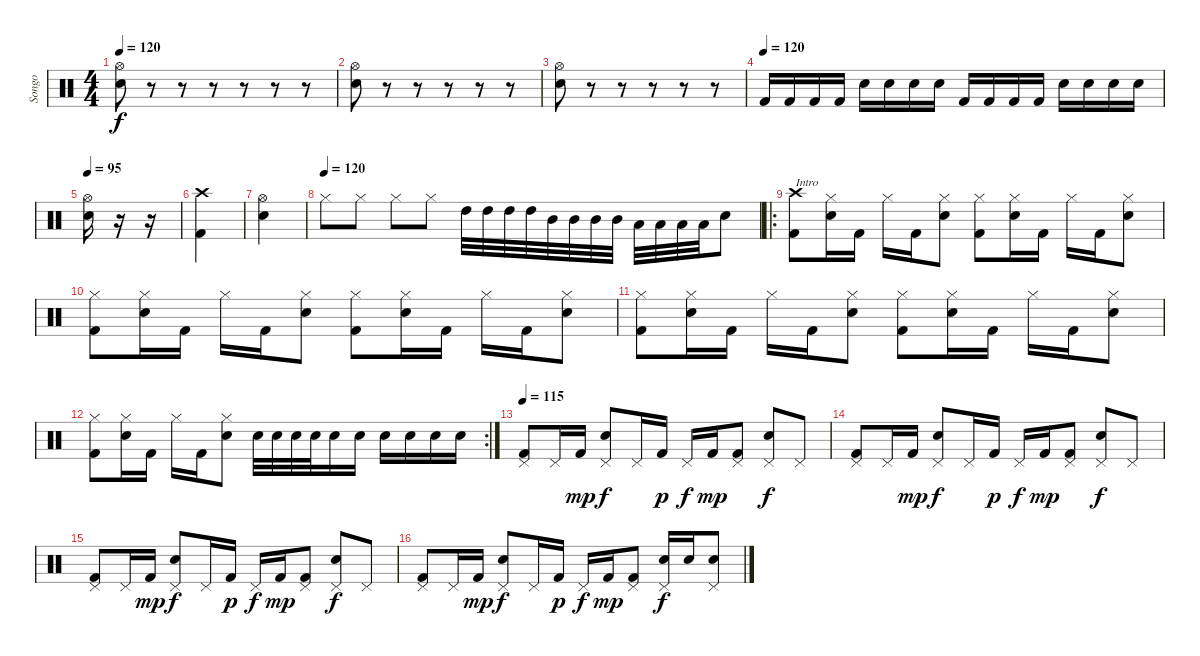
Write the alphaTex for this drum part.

\track ("Songo" "Songo") {instrument percussion}
\staff {score}
\articulation defaults
\ts (4 4)
\tempo 120
\tempo 95
\tempo 120
\clef neutral
\ks c
("Hi-Hat (open)" "Snare (hit) 2").8{dy f} r.8 r.8 r.8 r.8 r.8 r.8 |
("Hi-Hat (open)" "Snare (hit) 2").8 r.8 r.8 r.8 r.8 r.8 |
("Hi-Hat (open)" "Snare (hit) 2").8 r.8 r.8 r.8 r.8 r.8 |
\tempo (120)
"Kick (hit) 2".16 "Kick (hit) 2".16 "Kick (hit) 2".16 "Kick (hit) 2".16 "Snare (hit)"{x}.16 "Snare (hit)"{x}.16 "Snare (hit)"{x}.16 "Snare (hit)"{x}.16 "Kick (hit) 2".16 "Kick (hit) 2".16 "Kick (hit) 2".16 "Kick (hit) 2".16 "Snare (hit)"{x}.16 "Snare (hit)"{x}.16 "Snare (hit)"{x}.16 "Snare (hit)"{x}.16 |
\tempo 95
("Hi-Hat (open)" "Snare (hit) 2").16 r.16 r.16 |
("Crash high (hit)" "Kick (hit) 2").4 |
("Hi-Hat (open)" "Snare (hit) 2").4 |
\tempo (120)
"Hi-Hat (closed)".8 "Hi-Hat (closed)".8 "Hi-Hat (closed)".8 "Hi-Hat (closed)".8 "High Tom (hit)".32 "High Tom (hit)".32 "High Tom (hit)".32 "High Tom (hit)".32 "Mid Tom (hit)".32 "Mid Tom (hit)".32 "Mid Tom (hit)".32 "Mid Tom (hit)".32 "Low Tom (hit)".32 "Low Tom (hit)".32 "Low Tom (hit)".32 "Low Tom (hit)".32 "Electric Snare (hit)".8 |
\ro
("Kick (hit) 2" "Crash high (hit)").8{txt "Intro"} ("Snare (hit) 2" "Hi-Hat (closed)").16 "Kick (hit) 2".16 "Hi-Hat (closed)".16 "Kick (hit) 2".16 ("Snare (hit) 2" "Hi-Hat (closed)").8 ("Kick (hit) 2" "Hi-Hat (closed)").8 ("Snare (hit) 2" "Hi-Hat (closed)").16 "Kick (hit) 2".16 "Hi-Hat (closed)".16 "Kick (hit) 2".16 ("Snare (hit) 2" "Hi-Hat (closed)").8 |
("Kick (hit) 2" "Hi-Hat (closed)").8 ("Snare (hit) 2" "Hi-Hat (closed)").16 "Kick (hit) 2".16 "Hi-Hat (closed)".16 "Kick (hit) 2".16 ("Snare (hit) 2" "Hi-Hat (closed)").8 ("Kick (hit) 2" "Hi-Hat (closed)").8 ("Snare (hit) 2" "Hi-Hat (closed)").16 "Kick (hit) 2".16 "Hi-Hat (closed)".16 "Kick (hit) 2".16 ("Snare (hit) 2" "Hi-Hat (closed)").8 |
("Kick (hit) 2" "Hi-Hat (closed)").8 ("Snare (hit) 2" "Hi-Hat (closed)").16 "Kick (hit) 2".16 "Hi-Hat (closed)".16 "Kick (hit) 2".16 ("Snare (hit) 2" "Hi-Hat (closed)").8 ("Kick (hit) 2" "Hi-Hat (closed)").8 ("Snare (hit) 2" "Hi-Hat (closed)").16 "Kick (hit) 2".16 "Hi-Hat (closed)".16 "Kick (hit) 2".16 ("Snare (hit) 2" "Hi-Hat (closed)").8 |
\rc 2
("Kick (hit) 2" "Hi-Hat (closed)").8 ("Snare (hit) 2" "Hi-Hat (closed)").16 "Kick (hit) 2".16 "Hi-Hat (closed)".16 "Kick (hit) 2".16 ("Snare (hit) 2" "Hi-Hat (closed)").8 "Snare (hit) 2".32 "Snare (hit) 2".32 "Snare (hit) 2".32 "Snare (hit) 2".32 "Snare (hit) 2".16 "Snare (hit) 2".16 "Snare (hit) 2".16 "Snare (hit) 2".16 "Snare (hit) 2".16 "Snare (hit) 2".16 |
\tempo 115
("Pedal Hi-Hat (hit)" "Kick (hit) 2").8 "Pedal Hi-Hat (hit)".16 "Kick (hit) 2".16{dy mp} ("Pedal Hi-Hat (hit)" "Snare (hit) 2").8{dy f} "Pedal Hi-Hat (hit)".16 "Kick (hit) 2".16{dy p} "Pedal Hi-Hat (hit)".16{dy f} "Kick (hit) 2".16{dy mp} ("Pedal Hi-Hat (hit)" "Kick (hit) 2").8 ("Pedal Hi-Hat (hit)" "Snare (hit) 2").8{dy f} "Pedal Hi-Hat (hit)".8 |
("Pedal Hi-Hat (hit)" "Kick (hit) 2").8 "Pedal Hi-Hat (hit)".16 "Kick (hit) 2".16{dy mp} ("Pedal Hi-Hat (hit)" "Snare (hit) 2").8{dy f} "Pedal Hi-Hat (hit)".16 "Kick (hit) 2".16{dy p} "Pedal Hi-Hat (hit)".16{dy f} "Kick (hit) 2".16{dy mp} ("Pedal Hi-Hat (hit)" "Kick (hit) 2").8 ("Pedal Hi-Hat (hit)" "Snare (hit) 2").8{dy f} "Pedal Hi-Hat (hit)".8 |
("Pedal Hi-Hat (hit)" "Kick (hit) 2").8 "Pedal Hi-Hat (hit)".16 "Kick (hit) 2".16{dy mp} ("Pedal Hi-Hat (hit)" "Snare (hit) 2").8{dy f} "Pedal Hi-Hat (hit)".16 "Kick (hit) 2".16{dy p} "Pedal Hi-Hat (hit)".16{dy f} "Kick (hit) 2".16{dy mp} ("Pedal Hi-Hat (hit)" "Kick (hit) 2").8 ("Pedal Hi-Hat (hit)" "Snare (hit) 2").8{dy f} "Pedal Hi-Hat (hit)".8 |
("Pedal Hi-Hat (hit)" "Kick (hit) 2").8 "Pedal Hi-Hat (hit)".16 "Kick (hit) 2".16{dy mp} ("Pedal Hi-Hat (hit)" "Snare (hit) 2").8{dy f} "Pedal Hi-Hat (hit)".16 "Kick (hit) 2".16{dy p} "Pedal Hi-Hat (hit)".16{dy f} "Kick (hit) 2".16{dy mp} ("Pedal Hi-Hat (hit)" "Kick (hit) 2").8 ("Pedal Hi-Hat (hit)" "Snare (hit) 2").16{dy f} "Snare (hit) 2".16 ("Pedal Hi-Hat (hit)" "Snare (hit) 2").8
